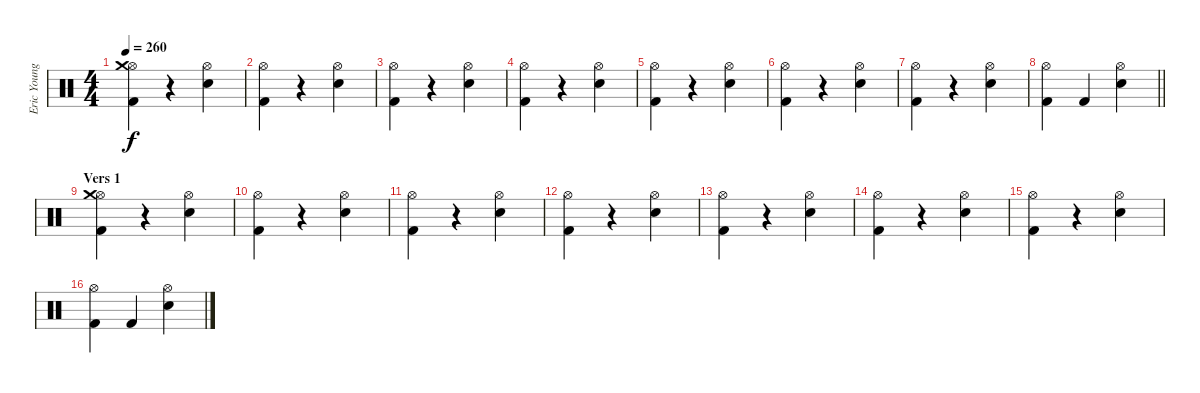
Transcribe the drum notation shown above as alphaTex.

\track ("Eric Young (Drums)" "Eric Young") {instrument percussion}
\staff {score}
\articulation defaults
\ts (4 4)
\tempo 260
\clef neutral
\ks c
("Hi-Hat (open)" "Kick (hit) 2" "Crash medium (hit)").4{dy f} r.4 ("Hi-Hat (open)" "Snare (hit) 2").4 |
("Hi-Hat (open)" "Kick (hit) 2").4 r.4 ("Hi-Hat (open)" "Snare (hit) 2").4 |
("Hi-Hat (open)" "Kick (hit) 2").4 r.4 ("Hi-Hat (open)" "Snare (hit) 2").4 |
("Hi-Hat (open)" "Kick (hit) 2").4 r.4 ("Hi-Hat (open)" "Snare (hit) 2").4 |
("Hi-Hat (open)" "Kick (hit) 2").4 r.4 ("Hi-Hat (open)" "Snare (hit) 2").4 |
("Hi-Hat (open)" "Kick (hit) 2").4 r.4 ("Hi-Hat (open)" "Snare (hit) 2").4 |
("Hi-Hat (open)" "Kick (hit) 2").4 r.4 ("Hi-Hat (open)" "Snare (hit) 2").4 |
\barLineRight lightlight
("Hi-Hat (open)" "Kick (hit) 2").4 "Kick (hit) 2".4 ("Hi-Hat (open)" "Snare (hit) 2").4 |
\section ("" "Vers 1")
("Hi-Hat (open)" "Kick (hit) 2" "Crash medium (hit)").4 r.4 ("Hi-Hat (open)" "Snare (hit) 2").4 |
("Hi-Hat (open)" "Kick (hit) 2").4 r.4 ("Hi-Hat (open)" "Snare (hit) 2").4 |
("Hi-Hat (open)" "Kick (hit) 2").4 r.4 ("Hi-Hat (open)" "Snare (hit) 2").4 |
("Hi-Hat (open)" "Kick (hit) 2").4 r.4 ("Hi-Hat (open)" "Snare (hit) 2").4 |
("Hi-Hat (open)" "Kick (hit) 2").4 r.4 ("Hi-Hat (open)" "Snare (hit) 2").4 |
("Hi-Hat (open)" "Kick (hit) 2").4 r.4 ("Hi-Hat (open)" "Snare (hit) 2").4 |
("Hi-Hat (open)" "Kick (hit) 2").4 r.4 ("Hi-Hat (open)" "Snare (hit) 2").4 |
("Hi-Hat (open)" "Kick (hit) 2").4 "Kick (hit) 2".4 ("Hi-Hat (open)" "Snare (hit) 2").4
